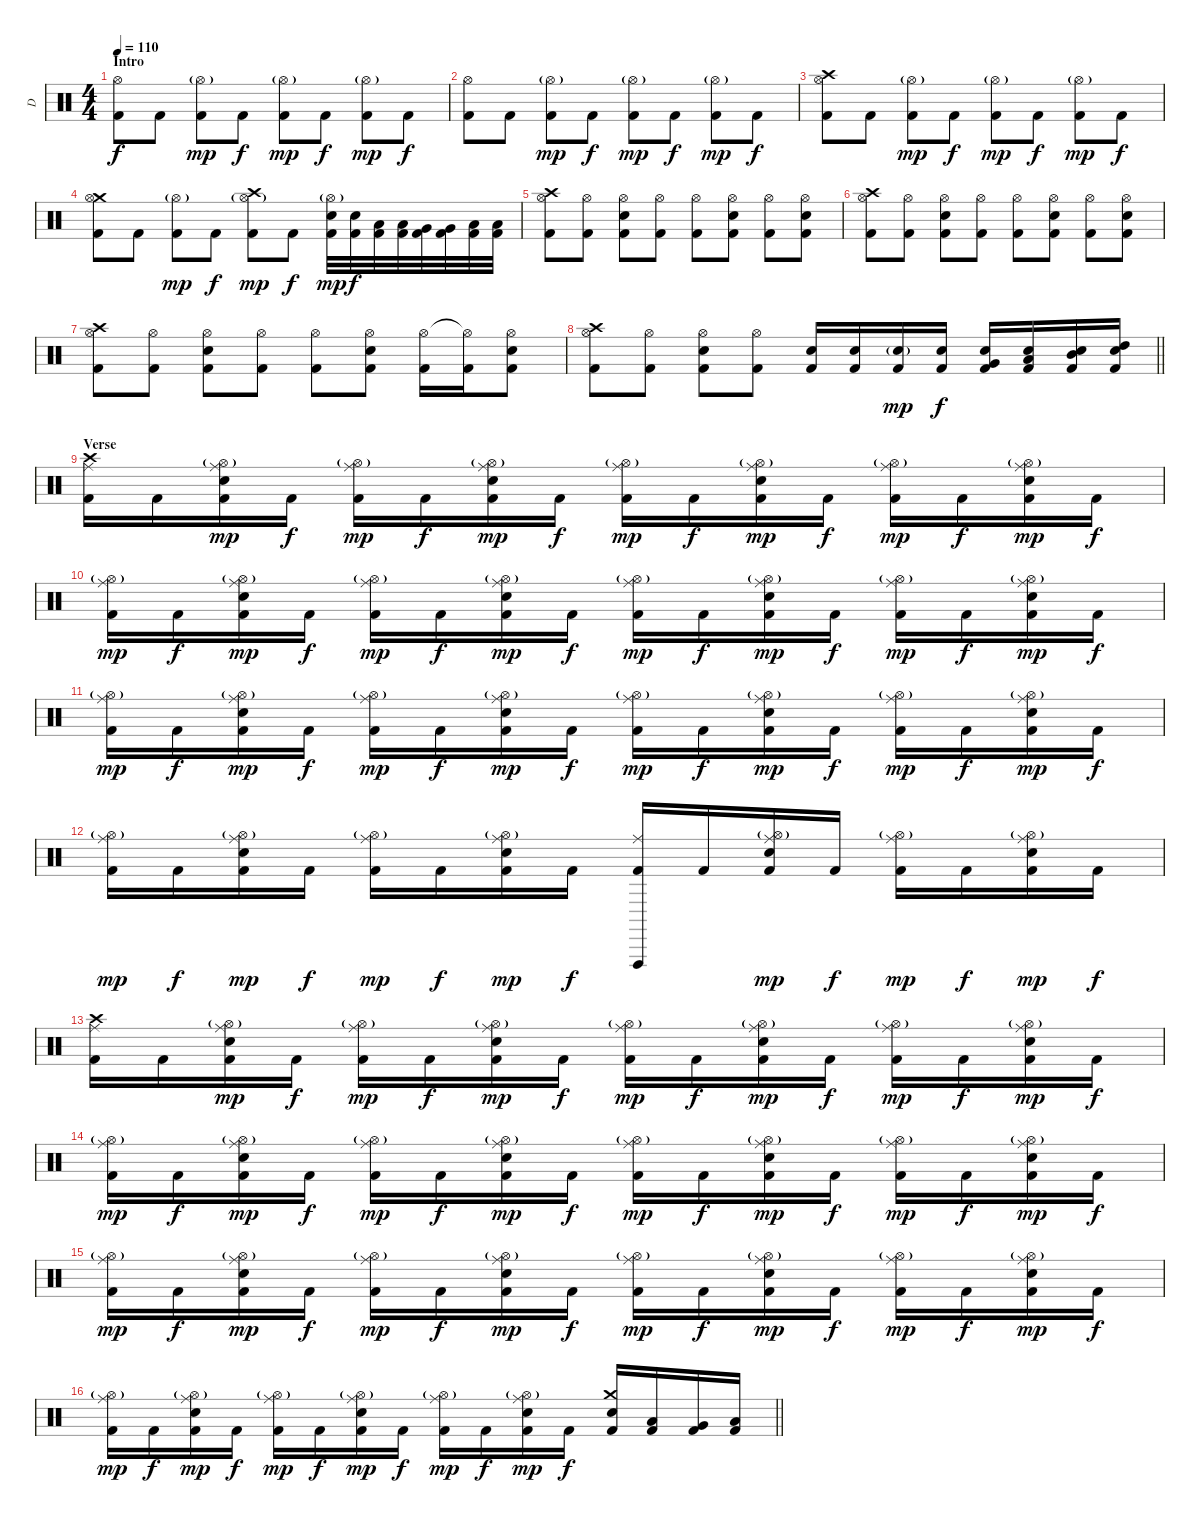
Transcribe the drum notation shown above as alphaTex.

\track ("D" "D") {instrument percussion}
\staff {score}
\articulation defaults
\ts (4 4)
\section ("" "Intro")
\tempo 110
\clef neutral
\ks c
("Hi-Hat (open)" "Kick (hit) 2").8{dy f} "Kick (hit) 2".8 ("Hi-Hat (open)"{g} "Kick (hit) 2").8{dy mp} "Kick (hit) 2".8{dy f} ("Hi-Hat (open)"{g} "Kick (hit) 2").8{dy mp} "Kick (hit) 2".8{dy f} ("Hi-Hat (open)"{g} "Kick (hit) 2").8{dy mp} "Kick (hit) 2".8{dy f} |
("Hi-Hat (open)" "Kick (hit) 2").8 "Kick (hit) 2".8 ("Hi-Hat (open)"{g} "Kick (hit) 2").8{dy mp} "Kick (hit) 2".8{dy f} ("Hi-Hat (open)"{g} "Kick (hit) 2").8{dy mp} "Kick (hit) 2".8{dy f} ("Hi-Hat (open)"{g} "Kick (hit) 2").8{dy mp} "Kick (hit) 2".8{dy f} |
("Crash high (hit)" "Hi-Hat (open)" "Kick (hit) 2").8 "Kick (hit) 2".8 ("Hi-Hat (open)"{g} "Kick (hit) 2").8{dy mp} "Kick (hit) 2".8{dy f} ("Hi-Hat (open)"{g} "Kick (hit) 2").8{dy mp} "Kick (hit) 2".8{dy f} ("Hi-Hat (open)"{g} "Kick (hit) 2").8{dy mp} "Kick (hit) 2".8{dy f} |
("Crash medium (hit)" "Hi-Hat (open)" "Kick (hit) 2").8 "Kick (hit) 2".8 ("Hi-Hat (open)"{g} "Kick (hit) 2").8{dy mp} "Kick (hit) 2".8{dy f} ("Crash high (hit)" "Hi-Hat (open)"{g} "Kick (hit) 2").8{dy mp} "Kick (hit) 2".8{dy f} ("Hi-Hat (open)"{g} "Electric Snare (hit)" "Kick (hit) 2").32{dy mp} ("Electric Snare (hit)" "Kick (hit) 2").32{dy f} ("Low Tom (hit)" "Kick (hit) 2").32 ("Low Tom (hit)" "Kick (hit) 2").32 ("Very Low Tom (hit)" "Kick (hit) 2").32 ("Very Low Tom (hit)" "Kick (hit) 2").32 ("Low Floor Tom (hit)" "Kick (hit) 2").32 ("Low Floor Tom (hit)" "Kick (hit) 2").32 |
("Crash high (hit)" "Hi-Hat (open)" "Kick (hit) 2").8 ("Hi-Hat (open)" "Kick (hit) 2").8 ("Hi-Hat (open)" "Electric Snare (hit)" "Kick (hit) 2").8 ("Hi-Hat (open)" "Kick (hit) 2").8 ("Hi-Hat (open)" "Kick (hit) 2").8 ("Hi-Hat (open)" "Electric Snare (hit)" "Kick (hit) 2").8 ("Hi-Hat (open)" "Kick (hit) 2").8 ("Hi-Hat (open)" "Electric Snare (hit)" "Kick (hit) 2").8 |
("Crash high (hit)" "Hi-Hat (open)" "Kick (hit) 2").8 ("Hi-Hat (open)" "Kick (hit) 2").8 ("Hi-Hat (open)" "Electric Snare (hit)" "Kick (hit) 2").8 ("Hi-Hat (open)" "Kick (hit) 2").8 ("Hi-Hat (open)" "Kick (hit) 2").8 ("Hi-Hat (open)" "Electric Snare (hit)" "Kick (hit) 2").8 ("Hi-Hat (open)" "Kick (hit) 2").8 ("Hi-Hat (open)" "Electric Snare (hit)" "Kick (hit) 2").8 |
("Crash high (hit)" "Hi-Hat (open)" "Kick (hit) 2").8 ("Hi-Hat (open)" "Kick (hit) 2").8 ("Hi-Hat (open)" "Electric Snare (hit)" "Kick (hit) 2").8 ("Hi-Hat (open)" "Kick (hit) 2").8 ("Hi-Hat (open)" "Kick (hit) 2").8 ("Hi-Hat (open)" "Electric Snare (hit)" "Kick (hit) 2").8 ("Hi-Hat (open)" "Kick (hit) 2").16 ("Hi-Hat (open)"{t} "Kick (hit) 2").16 ("Hi-Hat (open)" "Electric Snare (hit)" "Kick (hit) 2").8 |
\barLineRight lightlight
("Crash high (hit)" "Hi-Hat (open)" "Kick (hit) 2").8 ("Hi-Hat (open)" "Kick (hit) 2").8 ("Hi-Hat (open)" "Electric Snare (hit)" "Kick (hit) 2").8 ("Hi-Hat (open)" "Kick (hit) 2").8 ("Electric Snare (hit)" "Kick (hit) 2").16 ("Electric Snare (hit)" "Kick (hit) 2").16 ("Electric Snare (hit)"{g} "Kick (hit) 2").16{dy mp} ("Electric Snare (hit)" "Kick (hit) 2").16{dy f} ("Very Low Tom (hit)" "Electric Snare (hit)" "Kick (hit) 2").16 ("Low Tom (hit)" "Electric Snare (hit)" "Kick (hit) 2").16 ("Mid Tom (hit)" "Electric Snare (hit)" "Kick (hit) 2").16 ("High Tom (hit)" "Electric Snare (hit)" "Kick (hit) 2").16 |
\section ("" "Verse")
("Crash high (hit)" "Ride (middle)" "Kick (hit) 2").16 "Kick (hit) 2".16 ("Ride (middle)" "Hi-Hat (open)"{g} "Electric Snare (hit)" "Kick (hit) 2").16{dy mp} "Kick (hit) 2".16{dy f} ("Ride (middle)" "Hi-Hat (open)"{g} "Kick (hit) 2").16{dy mp} "Kick (hit) 2".16{dy f} ("Ride (middle)" "Hi-Hat (open)"{g} "Electric Snare (hit)" "Kick (hit) 2").16{dy mp} "Kick (hit) 2".16{dy f} ("Ride (middle)" "Hi-Hat (open)"{g} "Kick (hit) 2").16{dy mp} "Kick (hit) 2".16{dy f} ("Ride (middle)" "Hi-Hat (open)"{g} "Electric Snare (hit)" "Kick (hit) 2").16{dy mp} "Kick (hit) 2".16{dy f} ("Ride (middle)" "Hi-Hat (open)"{g} "Kick (hit) 2").16{dy mp} "Kick (hit) 2".16{dy f} ("Ride (middle)" "Hi-Hat (open)"{g} "Electric Snare (hit)" "Kick (hit) 2").16{dy mp} "Kick (hit) 2".16{dy f} |
("Ride (middle)" "Hi-Hat (open)"{g} "Kick (hit) 2").16{dy mp} "Kick (hit) 2".16{dy f} ("Ride (middle)" "Hi-Hat (open)"{g} "Electric Snare (hit)" "Kick (hit) 2").16{dy mp} "Kick (hit) 2".16{dy f} ("Ride (middle)" "Hi-Hat (open)"{g} "Kick (hit) 2").16{dy mp} "Kick (hit) 2".16{dy f} ("Ride (middle)" "Hi-Hat (open)"{g} "Electric Snare (hit)" "Kick (hit) 2").16{dy mp} "Kick (hit) 2".16{dy f} ("Ride (middle)" "Hi-Hat (open)"{g} "Kick (hit) 2").16{dy mp} "Kick (hit) 2".16{dy f} ("Ride (middle)" "Hi-Hat (open)"{g} "Electric Snare (hit)" "Kick (hit) 2").16{dy mp} "Kick (hit) 2".16{dy f} ("Ride (middle)" "Hi-Hat (open)"{g} "Kick (hit) 2").16{dy mp} "Kick (hit) 2".16{dy f} ("Ride (middle)" "Hi-Hat (open)"{g} "Electric Snare (hit)" "Kick (hit) 2").16{dy mp} "Kick (hit) 2".16{dy f} |
("Ride (middle)" "Hi-Hat (open)"{g} "Kick (hit) 2").16{dy mp} "Kick (hit) 2".16{dy f} ("Ride (middle)" "Hi-Hat (open)"{g} "Electric Snare (hit)" "Kick (hit) 2").16{dy mp} "Kick (hit) 2".16{dy f} ("Ride (middle)" "Hi-Hat (open)"{g} "Kick (hit) 2").16{dy mp} "Kick (hit) 2".16{dy f} ("Ride (middle)" "Hi-Hat (open)"{g} "Electric Snare (hit)" "Kick (hit) 2").16{dy mp} "Kick (hit) 2".16{dy f} ("Ride (middle)" "Hi-Hat (open)"{g} "Kick (hit) 2").16{dy mp} "Kick (hit) 2".16{dy f} ("Ride (middle)" "Hi-Hat (open)"{g} "Electric Snare (hit)" "Kick (hit) 2").16{dy mp} "Kick (hit) 2".16{dy f} ("Ride (middle)" "Hi-Hat (open)"{g} "Kick (hit) 2").16{dy mp} "Kick (hit) 2".16{dy f} ("Ride (middle)" "Hi-Hat (open)"{g} "Electric Snare (hit)" "Kick (hit) 2").16{dy mp} "Kick (hit) 2".16{dy f} |
("Ride (middle)" "Hi-Hat (open)"{g} "Kick (hit) 2").16{dy mp} "Kick (hit) 2".16{dy f} ("Ride (middle)" "Hi-Hat (open)"{g} "Electric Snare (hit)" "Kick (hit) 2").16{dy mp} "Kick (hit) 2".16{dy f} ("Ride (middle)" "Hi-Hat (open)"{g} "Kick (hit) 2").16{dy mp} "Kick (hit) 2".16{dy f} ("Ride (middle)" "Hi-Hat (open)"{g} "Electric Snare (hit)" "Kick (hit) 2").16{dy mp} "Kick (hit) 2".16{dy f} ("Ride (middle)" "Vibraslap (hit)" "Kick (hit) 2").16 "Kick (hit) 2".16 ("Ride (middle)" "Hi-Hat (open)"{g} "Electric Snare (hit)" "Kick (hit) 2").16{dy mp} "Kick (hit) 2".16{dy f} ("Ride (middle)" "Hi-Hat (open)"{g} "Kick (hit) 2").16{dy mp} "Kick (hit) 2".16{dy f} ("Ride (middle)" "Hi-Hat (open)"{g} "Electric Snare (hit)" "Kick (hit) 2").16{dy mp} "Kick (hit) 2".16{dy f} |
("Crash high (hit)" "Ride (middle)" "Kick (hit) 2").16 "Kick (hit) 2".16 ("Ride (middle)" "Hi-Hat (open)"{g} "Electric Snare (hit)" "Kick (hit) 2").16{dy mp} "Kick (hit) 2".16{dy f} ("Ride (middle)" "Hi-Hat (open)"{g} "Kick (hit) 2").16{dy mp} "Kick (hit) 2".16{dy f} ("Ride (middle)" "Hi-Hat (open)"{g} "Electric Snare (hit)" "Kick (hit) 2").16{dy mp} "Kick (hit) 2".16{dy f} ("Ride (middle)" "Hi-Hat (open)"{g} "Kick (hit) 2").16{dy mp} "Kick (hit) 2".16{dy f} ("Ride (middle)" "Hi-Hat (open)"{g} "Electric Snare (hit)" "Kick (hit) 2").16{dy mp} "Kick (hit) 2".16{dy f} ("Ride (middle)" "Hi-Hat (open)"{g} "Kick (hit) 2").16{dy mp} "Kick (hit) 2".16{dy f} ("Ride (middle)" "Hi-Hat (open)"{g} "Electric Snare (hit)" "Kick (hit) 2").16{dy mp} "Kick (hit) 2".16{dy f} |
("Ride (middle)" "Hi-Hat (open)"{g} "Kick (hit) 2").16{dy mp} "Kick (hit) 2".16{dy f} ("Ride (middle)" "Hi-Hat (open)"{g} "Electric Snare (hit)" "Kick (hit) 2").16{dy mp} "Kick (hit) 2".16{dy f} ("Ride (middle)" "Hi-Hat (open)"{g} "Kick (hit) 2").16{dy mp} "Kick (hit) 2".16{dy f} ("Ride (middle)" "Hi-Hat (open)"{g} "Electric Snare (hit)" "Kick (hit) 2").16{dy mp} "Kick (hit) 2".16{dy f} ("Ride (middle)" "Hi-Hat (open)"{g} "Kick (hit) 2").16{dy mp} "Kick (hit) 2".16{dy f} ("Ride (middle)" "Hi-Hat (open)"{g} "Electric Snare (hit)" "Kick (hit) 2").16{dy mp} "Kick (hit) 2".16{dy f} ("Ride (middle)" "Hi-Hat (open)"{g} "Kick (hit) 2").16{dy mp} "Kick (hit) 2".16{dy f} ("Ride (middle)" "Hi-Hat (open)"{g} "Electric Snare (hit)" "Kick (hit) 2").16{dy mp} "Kick (hit) 2".16{dy f} |
("Ride (middle)" "Hi-Hat (open)"{g} "Kick (hit) 2").16{dy mp} "Kick (hit) 2".16{dy f} ("Ride (middle)" "Hi-Hat (open)"{g} "Electric Snare (hit)" "Kick (hit) 2").16{dy mp} "Kick (hit) 2".16{dy f} ("Ride (middle)" "Hi-Hat (open)"{g} "Kick (hit) 2").16{dy mp} "Kick (hit) 2".16{dy f} ("Ride (middle)" "Hi-Hat (open)"{g} "Electric Snare (hit)" "Kick (hit) 2").16{dy mp} "Kick (hit) 2".16{dy f} ("Ride (middle)" "Hi-Hat (open)"{g} "Kick (hit) 2").16{dy mp} "Kick (hit) 2".16{dy f} ("Ride (middle)" "Hi-Hat (open)"{g} "Electric Snare (hit)" "Kick (hit) 2").16{dy mp} "Kick (hit) 2".16{dy f} ("Ride (middle)" "Hi-Hat (open)"{g} "Kick (hit) 2").16{dy mp} "Kick (hit) 2".16{dy f} ("Ride (middle)" "Hi-Hat (open)"{g} "Electric Snare (hit)" "Kick (hit) 2").16{dy mp} "Kick (hit) 2".16{dy f} |
\barLineRight lightlight
("Ride (middle)" "Hi-Hat (open)"{g} "Kick (hit) 2").16{dy mp} "Kick (hit) 2".16{dy f} ("Ride (middle)" "Hi-Hat (open)"{g} "Electric Snare (hit)" "Kick (hit) 2").16{dy mp} "Kick (hit) 2".16{dy f} ("Ride (middle)" "Hi-Hat (open)"{g} "Kick (hit) 2").16{dy mp} "Kick (hit) 2".16{dy f} ("Ride (middle)" "Hi-Hat (open)"{g} "Electric Snare (hit)" "Kick (hit) 2").16{dy mp} "Kick (hit) 2".16{dy f} ("Ride (middle)" "Hi-Hat (open)"{g} "Kick (hit) 2").16{dy mp} "Kick (hit) 2".16{dy f} ("Ride (middle)" "Hi-Hat (open)"{g} "Electric Snare (hit)" "Kick (hit) 2").16{dy mp} "Kick (hit) 2".16{dy f} ("Crash medium (hit)" "Electric Snare (hit)" "Kick (hit) 2").16 ("Low Tom (hit)" "Kick (hit) 2").16 ("Very Low Tom (hit)" "Kick (hit) 2").16 ("Low Floor Tom (hit)" "Kick (hit) 2").16
